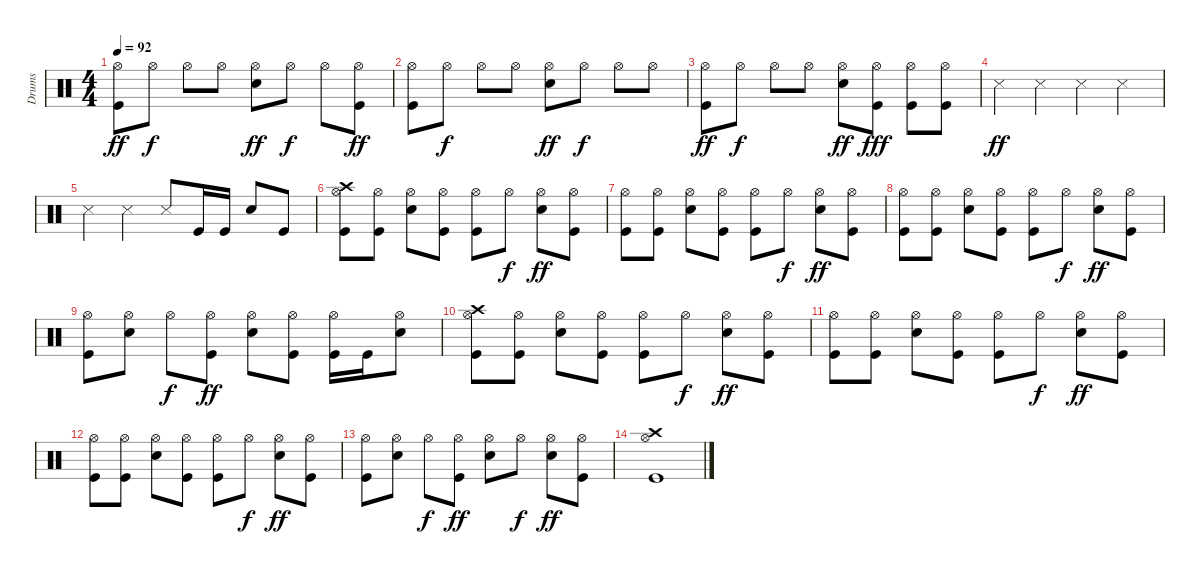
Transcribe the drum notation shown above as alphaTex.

\track ("Drums" "Drums") {instrument percussion}
\staff {score}
\articulation defaults
\ts (4 4)
\tempo 92
\clef neutral
\ks c
("Hi-Hat (open)" "Kick (hit)").8{dy ff} "Hi-Hat (open)".8{dy f} "Hi-Hat (open)".8 "Hi-Hat (open)".8 ("Hi-Hat (open)" "Snare (hit) 2").8{dy ff} "Hi-Hat (open)".8{dy f} "Hi-Hat (open)".8 ("Hi-Hat (open)" "Kick (hit)").8{dy ff} |
("Hi-Hat (open)" "Kick (hit)").8 "Hi-Hat (open)".8{dy f} "Hi-Hat (open)".8 "Hi-Hat (open)".8 ("Hi-Hat (open)" "Snare (hit) 2").8{dy ff} "Hi-Hat (open)".8{dy f} "Hi-Hat (open)".8 "Hi-Hat (open)".8 |
("Hi-Hat (open)" "Kick (hit)").8{dy ff} "Hi-Hat (open)".8{dy f} "Hi-Hat (open)".8 "Hi-Hat (open)".8 ("Hi-Hat (open)" "Snare (hit) 2").8{dy ff} ("Hi-Hat (open)" "Kick (hit)").8{dy fff} ("Hi-Hat (open)" "Kick (hit)").8 ("Hi-Hat (open)" "Kick (hit)").8 |
"Snare (side stick) 3".4{dy ff} "Snare (side stick) 3".4 "Snare (side stick) 3".4 "Snare (side stick) 3".4 |
"Snare (side stick) 3".4 "Snare (side stick) 3".4 "Snare (side stick) 3".8 "Kick (hit)".16 "Kick (hit)".16 "Snare (hit) 2".8 "Kick (hit)".8 |
("Hi-Hat (open)" "Crash high (hit)" "Kick (hit)").8 ("Hi-Hat (open)" "Kick (hit)").8 ("Hi-Hat (open)" "Snare (hit) 2").8 ("Hi-Hat (open)" "Kick (hit)").8 ("Hi-Hat (open)" "Kick (hit)").8 "Hi-Hat (open)".8{dy f} ("Hi-Hat (open)" "Snare (hit) 2").8{dy ff} ("Hi-Hat (open)" "Kick (hit)").8 |
("Hi-Hat (open)" "Kick (hit)").8 ("Hi-Hat (open)" "Kick (hit)").8 ("Hi-Hat (open)" "Snare (hit) 2").8 ("Hi-Hat (open)" "Kick (hit)").8 ("Hi-Hat (open)" "Kick (hit)").8 "Hi-Hat (open)".8{dy f} ("Hi-Hat (open)" "Snare (hit) 2").8{dy ff} ("Hi-Hat (open)" "Kick (hit)").8 |
("Hi-Hat (open)" "Kick (hit)").8 ("Hi-Hat (open)" "Kick (hit)").8 ("Hi-Hat (open)" "Snare (hit) 2").8 ("Hi-Hat (open)" "Kick (hit)").8 ("Hi-Hat (open)" "Kick (hit)").8 "Hi-Hat (open)".8{dy f} ("Hi-Hat (open)" "Snare (hit) 2").8{dy ff} ("Hi-Hat (open)" "Kick (hit)").8 |
("Hi-Hat (open)" "Kick (hit)").8 ("Hi-Hat (open)" "Snare (hit) 2").8 "Hi-Hat (open)".8{dy f} ("Hi-Hat (open)" "Kick (hit)").8{dy ff} ("Hi-Hat (open)" "Snare (hit) 2").8 ("Hi-Hat (open)" "Kick (hit)").8 ("Hi-Hat (open)" "Kick (hit)").16 "Kick (hit)".16 ("Hi-Hat (open)" "Snare (hit) 2").8 |
("Hi-Hat (open)" "Crash high (hit)" "Kick (hit)").8 ("Hi-Hat (open)" "Kick (hit)").8 ("Hi-Hat (open)" "Snare (hit) 2").8 ("Hi-Hat (open)" "Kick (hit)").8 ("Hi-Hat (open)" "Kick (hit)").8 "Hi-Hat (open)".8{dy f} ("Hi-Hat (open)" "Snare (hit) 2").8{dy ff} ("Hi-Hat (open)" "Kick (hit)").8 |
("Hi-Hat (open)" "Kick (hit)").8 ("Hi-Hat (open)" "Kick (hit)").8 ("Hi-Hat (open)" "Snare (hit) 2").8 ("Hi-Hat (open)" "Kick (hit)").8 ("Hi-Hat (open)" "Kick (hit)").8 "Hi-Hat (open)".8{dy f} ("Hi-Hat (open)" "Snare (hit) 2").8{dy ff} ("Hi-Hat (open)" "Kick (hit)").8 |
("Hi-Hat (open)" "Kick (hit)").8 ("Hi-Hat (open)" "Kick (hit)").8 ("Hi-Hat (open)" "Snare (hit) 2").8 ("Hi-Hat (open)" "Kick (hit)").8 ("Hi-Hat (open)" "Kick (hit)").8 "Hi-Hat (open)".8{dy f} ("Hi-Hat (open)" "Snare (hit) 2").8{dy ff} ("Hi-Hat (open)" "Kick (hit)").8 |
("Hi-Hat (open)" "Kick (hit)").8 ("Hi-Hat (open)" "Snare (hit) 2").8 "Hi-Hat (open)".8{dy f} ("Hi-Hat (open)" "Kick (hit)").8{dy ff} ("Hi-Hat (open)" "Snare (hit) 2").8 "Hi-Hat (open)".8{dy f} ("Hi-Hat (open)" "Snare (hit) 2").8{dy ff} ("Hi-Hat (open)" "Kick (hit)").8 |
("Hi-Hat (open)" "Crash high (hit)" "Kick (hit)").1
